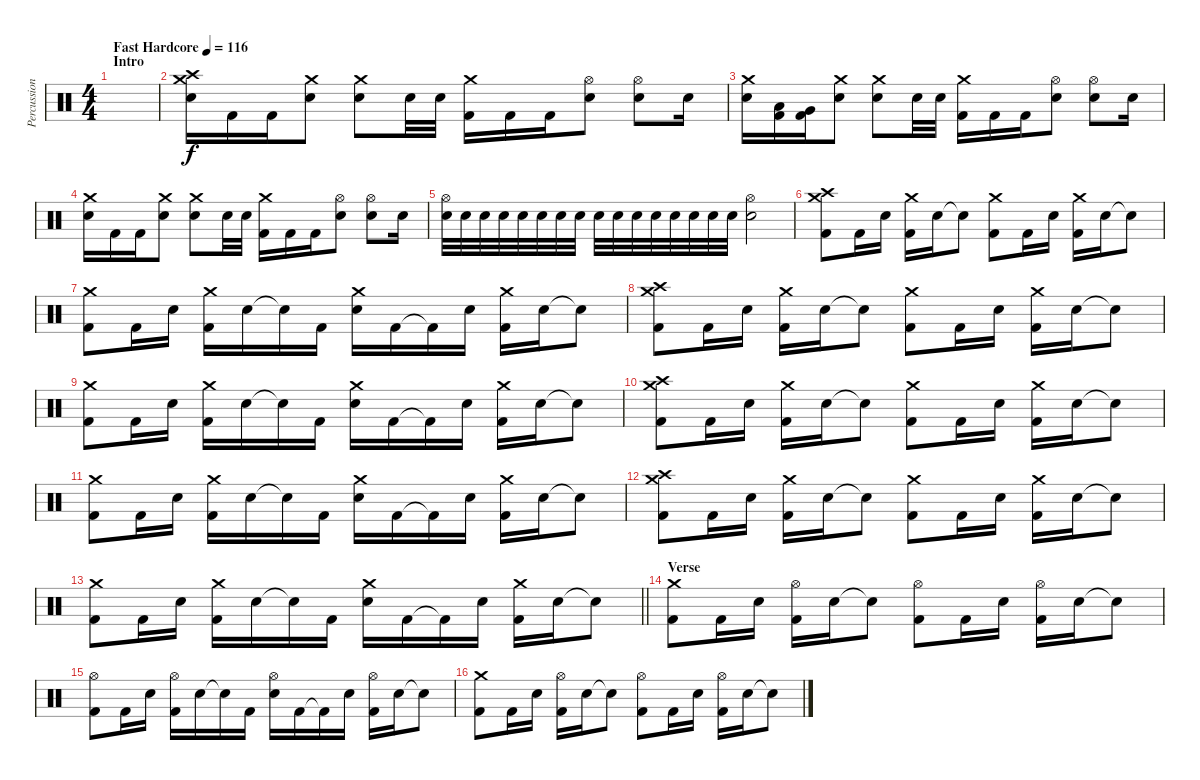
\track ("Percussion" "Percussion") {instrument percussion}
\staff {score}
\articulation defaults
\ts (4 4)
\section ("" "Intro")
\tempo (116 "Fast Hardcore")
\clef neutral
\ks c
|
("Crash medium (hit)" "Crash high (hit)" "Electric Snare (hit)").16 "Kick (hit) 2".16 "Kick (hit) 2".16 ("Crash medium (hit)" "Electric Snare (hit)").8 ("Crash medium (hit)" "Electric Snare (hit)").8 "Electric Snare (hit)".32 "Electric Snare (hit)".32 ("Crash medium (hit)" "Kick (hit) 2").16 "Kick (hit) 2".16 "Kick (hit) 2".16 ("Hi-Hat (open)" "Electric Snare (hit)").8 ("Hi-Hat (open)" "Electric Snare (hit)").8 "Electric Snare (hit)".16 |
("Crash medium (hit)" "Electric Snare (hit)").16 ("Low Tom (hit)" "Kick (hit) 2").16 ("Very Low Tom (hit)" "Kick (hit) 2").16 ("Crash medium (hit)" "Electric Snare (hit)").8 ("Crash medium (hit)" "Electric Snare (hit)").8 "Electric Snare (hit)".32 "Electric Snare (hit)".32 ("Crash medium (hit)" "Kick (hit) 2").16 "Kick (hit) 2".16 "Kick (hit) 2".16 ("Hi-Hat (open)" "Electric Snare (hit)").8 ("Hi-Hat (open)" "Electric Snare (hit)").8 "Electric Snare (hit)".16 |
("Crash medium (hit)" "Electric Snare (hit)").16 "Kick (hit) 2".16 "Kick (hit) 2".16 ("Crash medium (hit)" "Electric Snare (hit)").8 ("Crash medium (hit)" "Electric Snare (hit)").8 "Electric Snare (hit)".32 "Electric Snare (hit)".32 ("Crash medium (hit)" "Kick (hit) 2").16 "Kick (hit) 2".16 "Kick (hit) 2".16 ("Hi-Hat (open)" "Electric Snare (hit)").8 ("Hi-Hat (open)" "Electric Snare (hit)").8 "Electric Snare (hit)".16 |
("Hi-Hat (open)" "Electric Snare (hit)").32 "Electric Snare (hit)".32 "Electric Snare (hit)".32 "Electric Snare (hit)".32 "Electric Snare (hit)".32 "Electric Snare (hit)".32 "Electric Snare (hit)".32 "Electric Snare (hit)".32 "Electric Snare (hit)".32 "Electric Snare (hit)".32 "Electric Snare (hit)".32 "Electric Snare (hit)".32 "Electric Snare (hit)".32 "Electric Snare (hit)".32 "Electric Snare (hit)".32 "Electric Snare (hit)".32 ("Hi-Hat (open)" "Electric Snare (hit)").2 |
("Crash medium (hit)" "Crash high (hit)" "Kick (hit) 2").8 "Kick (hit) 2".16 "Electric Snare (hit)".16 ("Crash medium (hit)" "Kick (hit) 2").16 "Electric Snare (hit)".16 "Electric Snare (hit)"{t}.8 ("Crash medium (hit)" "Kick (hit) 2").8 "Kick (hit) 2".16 "Electric Snare (hit)".16 ("Crash medium (hit)" "Kick (hit) 2").16 "Electric Snare (hit)".16 "Electric Snare (hit)"{t}.8 |
("Crash medium (hit)" "Kick (hit) 2").8 "Kick (hit) 2".16 "Electric Snare (hit)".16 ("Crash medium (hit)" "Kick (hit) 2").16 "Electric Snare (hit)".16 "Electric Snare (hit)"{t}.16 "Kick (hit) 2".16 ("Crash medium (hit)" "Electric Snare (hit)").16 "Kick (hit) 2".16 "Kick (hit) 2"{t}.16 "Electric Snare (hit)".16 ("Crash medium (hit)" "Kick (hit) 2").16 "Electric Snare (hit)".16 "Electric Snare (hit)"{t}.8 |
("Crash medium (hit)" "Crash high (hit)" "Kick (hit) 2").8 "Kick (hit) 2".16 "Electric Snare (hit)".16 ("Crash medium (hit)" "Kick (hit) 2").16 "Electric Snare (hit)".16 "Electric Snare (hit)"{t}.8 ("Crash medium (hit)" "Kick (hit) 2").8 "Kick (hit) 2".16 "Electric Snare (hit)".16 ("Crash medium (hit)" "Kick (hit) 2").16 "Electric Snare (hit)".16 "Electric Snare (hit)"{t}.8 |
("Crash medium (hit)" "Kick (hit) 2").8 "Kick (hit) 2".16 "Electric Snare (hit)".16 ("Crash medium (hit)" "Kick (hit) 2").16 "Electric Snare (hit)".16 "Electric Snare (hit)"{t}.16 "Kick (hit) 2".16 ("Crash medium (hit)" "Electric Snare (hit)").16 "Kick (hit) 2".16 "Kick (hit) 2"{t}.16 "Electric Snare (hit)".16 ("Crash medium (hit)" "Kick (hit) 2").16 "Electric Snare (hit)".16 "Electric Snare (hit)"{t}.8 |
("Crash medium (hit)" "Crash high (hit)" "Kick (hit) 2").8 "Kick (hit) 2".16 "Electric Snare (hit)".16 ("Crash medium (hit)" "Kick (hit) 2").16 "Electric Snare (hit)".16 "Electric Snare (hit)"{t}.8 ("Crash medium (hit)" "Kick (hit) 2").8 "Kick (hit) 2".16 "Electric Snare (hit)".16 ("Crash medium (hit)" "Kick (hit) 2").16 "Electric Snare (hit)".16 "Electric Snare (hit)"{t}.8 |
("Crash medium (hit)" "Kick (hit) 2").8 "Kick (hit) 2".16 "Electric Snare (hit)".16 ("Crash medium (hit)" "Kick (hit) 2").16 "Electric Snare (hit)".16 "Electric Snare (hit)"{t}.16 "Kick (hit) 2".16 ("Crash medium (hit)" "Electric Snare (hit)").16 "Kick (hit) 2".16 "Kick (hit) 2"{t}.16 "Electric Snare (hit)".16 ("Crash medium (hit)" "Kick (hit) 2").16 "Electric Snare (hit)".16 "Electric Snare (hit)"{t}.8 |
("Crash medium (hit)" "Crash high (hit)" "Kick (hit) 2").8 "Kick (hit) 2".16 "Electric Snare (hit)".16 ("Crash medium (hit)" "Kick (hit) 2").16 "Electric Snare (hit)".16 "Electric Snare (hit)"{t}.8 ("Crash medium (hit)" "Kick (hit) 2").8 "Kick (hit) 2".16 "Electric Snare (hit)".16 ("Crash medium (hit)" "Kick (hit) 2").16 "Electric Snare (hit)".16 "Electric Snare (hit)"{t}.8 |
\barLineRight lightlight
("Crash medium (hit)" "Kick (hit) 2").8 "Kick (hit) 2".16 "Electric Snare (hit)".16 ("Crash medium (hit)" "Kick (hit) 2").16 "Electric Snare (hit)".16 "Electric Snare (hit)"{t}.16 "Kick (hit) 2".16 ("Crash medium (hit)" "Electric Snare (hit)").16 "Kick (hit) 2".16 "Kick (hit) 2"{t}.16 "Electric Snare (hit)".16 ("Crash medium (hit)" "Kick (hit) 2").16 "Electric Snare (hit)".16 "Electric Snare (hit)"{t}.8 |
\section ("" "Verse")
("Crash medium (hit)" "Kick (hit) 2").8 "Kick (hit) 2".16 "Electric Snare (hit)".16 ("Hi-Hat (open)" "Kick (hit) 2").16 "Electric Snare (hit)".16 "Electric Snare (hit)"{t}.8 ("Hi-Hat (open)" "Kick (hit) 2").8 "Kick (hit) 2".16 "Electric Snare (hit)".16 ("Hi-Hat (open)" "Kick (hit) 2").16 "Electric Snare (hit)".16 "Electric Snare (hit)"{t}.8 |
("Hi-Hat (open)" "Kick (hit) 2").8 "Kick (hit) 2".16 "Electric Snare (hit)".16 ("Hi-Hat (open)" "Kick (hit) 2").16 "Electric Snare (hit)".16 "Electric Snare (hit)"{t}.16 "Kick (hit) 2".16 ("Hi-Hat (open)" "Electric Snare (hit)").16 "Kick (hit) 2".16 "Kick (hit) 2"{t}.16 "Electric Snare (hit)".16 ("Hi-Hat (open)" "Kick (hit) 2").16 "Electric Snare (hit)".16 "Electric Snare (hit)"{t}.8 |
("Crash medium (hit)" "Kick (hit) 2").8 "Kick (hit) 2".16 "Electric Snare (hit)".16 ("Hi-Hat (open)" "Kick (hit) 2").16 "Electric Snare (hit)".16 "Electric Snare (hit)"{t}.8 ("Hi-Hat (open)" "Kick (hit) 2").8 "Kick (hit) 2".16 "Electric Snare (hit)".16 ("Hi-Hat (open)" "Kick (hit) 2").16 "Electric Snare (hit)".16 "Electric Snare (hit)"{t}.8
